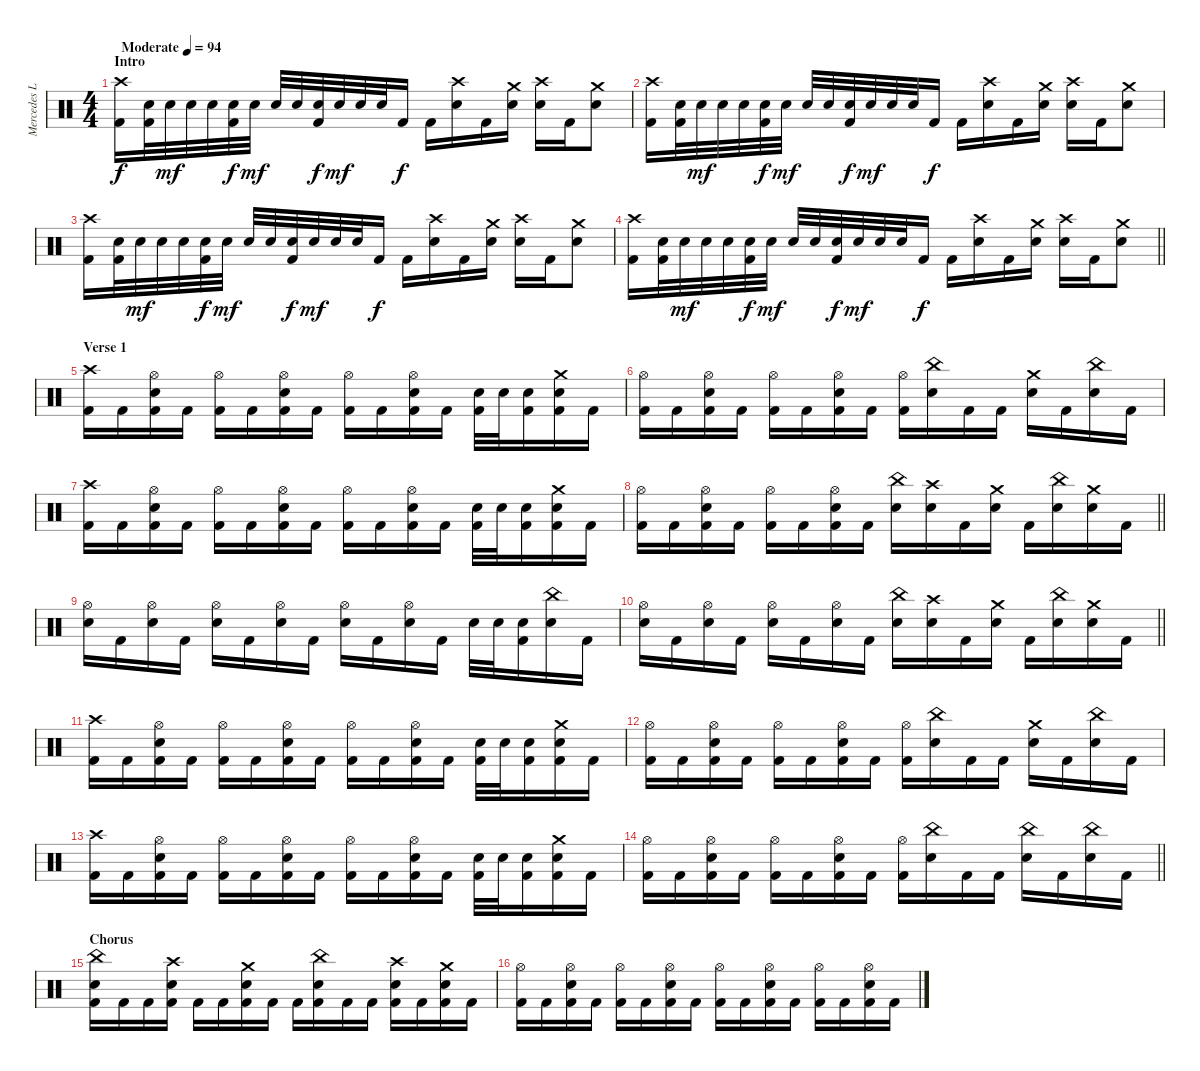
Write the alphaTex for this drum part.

\track ("Mercedes Lander" "Mercedes L") {instrument percussion}
\staff {score}
\articulation defaults
\ts (4 4)
\section ("" "Intro")
\tempo (94 "Moderate")
\clef neutral
\ks c
("Crash high (hit)" "Kick (hit) 2").16{dy f} ("Snare (hit) 2" "Kick (hit) 2").32 "Snare (hit) 2".32{dy mf} "Snare (hit) 2".32 "Snare (hit) 2".32 ("Snare (hit) 2" "Kick (hit) 2").32{dy f} "Snare (hit) 2".32{dy mf} "Snare (hit) 2".32 "Snare (hit) 2".32 ("Snare (hit) 2" "Kick (hit) 2").32{dy f} "Snare (hit) 2".32{dy mf} "Snare (hit) 2".32 "Snare (hit) 2".32 "Kick (hit) 2".16{dy f} "Kick (hit) 2".16 ("Crash high (hit)" "Snare (hit) 2").16 "Kick (hit) 2".16 ("Crash medium (hit)" "Snare (hit) 2").16 ("Crash high (hit)" "Snare (hit) 2").16 "Kick (hit) 2".16 ("Crash medium (hit)" "Snare (hit) 2").8 |
("Crash high (hit)" "Kick (hit) 2").16 ("Snare (hit) 2" "Kick (hit) 2").32 "Snare (hit) 2".32{dy mf} "Snare (hit) 2".32 "Snare (hit) 2".32 ("Snare (hit) 2" "Kick (hit) 2").32{dy f} "Snare (hit) 2".32{dy mf} "Snare (hit) 2".32 "Snare (hit) 2".32 ("Snare (hit) 2" "Kick (hit) 2").32{dy f} "Snare (hit) 2".32{dy mf} "Snare (hit) 2".32 "Snare (hit) 2".32 "Kick (hit) 2".16{dy f} "Kick (hit) 2".16 ("Crash high (hit)" "Snare (hit) 2").16 "Kick (hit) 2".16 ("Crash medium (hit)" "Snare (hit) 2").16 ("Crash high (hit)" "Snare (hit) 2").16 "Kick (hit) 2".16 ("Crash medium (hit)" "Snare (hit) 2").8 |
("Crash high (hit)" "Kick (hit) 2").16 ("Snare (hit) 2" "Kick (hit) 2").32 "Snare (hit) 2".32{dy mf} "Snare (hit) 2".32 "Snare (hit) 2".32 ("Snare (hit) 2" "Kick (hit) 2").32{dy f} "Snare (hit) 2".32{dy mf} "Snare (hit) 2".32 "Snare (hit) 2".32 ("Snare (hit) 2" "Kick (hit) 2").32{dy f} "Snare (hit) 2".32{dy mf} "Snare (hit) 2".32 "Snare (hit) 2".32 "Kick (hit) 2".16{dy f} "Kick (hit) 2".16 ("Crash high (hit)" "Snare (hit) 2").16 "Kick (hit) 2".16 ("Crash medium (hit)" "Snare (hit) 2").16 ("Crash high (hit)" "Snare (hit) 2").16 "Kick (hit) 2".16 ("Crash medium (hit)" "Snare (hit) 2").8 |
\barLineRight lightlight
("Crash high (hit)" "Kick (hit) 2").16 ("Snare (hit) 2" "Kick (hit) 2").32 "Snare (hit) 2".32{dy mf} "Snare (hit) 2".32 "Snare (hit) 2".32 ("Snare (hit) 2" "Kick (hit) 2").32{dy f} "Snare (hit) 2".32{dy mf} "Snare (hit) 2".32 "Snare (hit) 2".32 ("Snare (hit) 2" "Kick (hit) 2").32{dy f} "Snare (hit) 2".32{dy mf} "Snare (hit) 2".32 "Snare (hit) 2".32 "Kick (hit) 2".16{dy f} "Kick (hit) 2".16 ("Crash high (hit)" "Snare (hit) 2").16 "Kick (hit) 2".16 ("Crash medium (hit)" "Snare (hit) 2").16 ("Crash high (hit)" "Snare (hit) 2").16 "Kick (hit) 2".16 ("Crash medium (hit)" "Snare (hit) 2").8 |
\section ("" "Verse 1")
("Crash high (hit)" "Kick (hit) 2").16 "Kick (hit) 2".16 ("Hi-Hat (open)" "Snare (hit) 2" "Kick (hit) 2").16 "Kick (hit) 2".16 ("Hi-Hat (open)" "Kick (hit) 2").16 "Kick (hit) 2".16 ("Hi-Hat (open)" "Snare (hit) 2" "Kick (hit) 2").16 "Kick (hit) 2".16 ("Hi-Hat (open)" "Kick (hit) 2").16 "Kick (hit) 2".16 ("Hi-Hat (open)" "Snare (hit) 2" "Kick (hit) 2").16 "Kick (hit) 2".16 ("Snare (hit) 2" "Kick (hit) 2").32 "Snare (hit) 2".32 ("Snare (hit) 2" "Kick (hit) 2").16 ("Crash medium (hit)" "Snare (hit) 2" "Kick (hit) 2").16 "Kick (hit) 2".16 |
("Hi-Hat (open)" "Kick (hit) 2").16 "Kick (hit) 2".16 ("Hi-Hat (open)" "Snare (hit) 2" "Kick (hit) 2").16 "Kick (hit) 2".16 ("Hi-Hat (open)" "Kick (hit) 2").16 "Kick (hit) 2".16 ("Hi-Hat (open)" "Snare (hit) 2" "Kick (hit) 2").16 "Kick (hit) 2".16 ("Hi-Hat (open)" "Kick (hit) 2").16 ("China (hit)" "Snare (hit) 2").16 "Kick (hit) 2".16 "Kick (hit) 2".16 ("Crash medium (hit)" "Snare (hit) 2").16 "Kick (hit) 2".16 ("China (hit)" "Snare (hit) 2").16 "Kick (hit) 2".16 |
("Crash high (hit)" "Kick (hit) 2").16 "Kick (hit) 2".16 ("Hi-Hat (open)" "Snare (hit) 2" "Kick (hit) 2").16 "Kick (hit) 2".16 ("Hi-Hat (open)" "Kick (hit) 2").16 "Kick (hit) 2".16 ("Hi-Hat (open)" "Snare (hit) 2" "Kick (hit) 2").16 "Kick (hit) 2".16 ("Hi-Hat (open)" "Kick (hit) 2").16 "Kick (hit) 2".16 ("Hi-Hat (open)" "Snare (hit) 2" "Kick (hit) 2").16 "Kick (hit) 2".16 ("Snare (hit) 2" "Kick (hit) 2").32 "Snare (hit) 2".32 ("Snare (hit) 2" "Kick (hit) 2").16 ("Crash medium (hit)" "Snare (hit) 2" "Kick (hit) 2").16 "Kick (hit) 2".16 |
\barLineRight lightlight
("Hi-Hat (open)" "Kick (hit) 2").16 "Kick (hit) 2".16 ("Hi-Hat (open)" "Snare (hit) 2" "Kick (hit) 2").16 "Kick (hit) 2".16 ("Hi-Hat (open)" "Kick (hit) 2").16 "Kick (hit) 2".16 ("Hi-Hat (open)" "Snare (hit) 2" "Kick (hit) 2").16 "Kick (hit) 2".16 ("China (hit)" "Snare (hit) 2").16 ("Crash high (hit)" "Snare (hit) 2").16 "Kick (hit) 2".16 ("Crash medium (hit)" "Snare (hit) 2").16 "Kick (hit) 2".16 ("China (hit)" "Snare (hit) 2").16 ("Crash medium (hit)" "Snare (hit) 2").16 "Kick (hit) 2".16 |
("Hi-Hat (open)" "Snare (hit) 2").16 "Kick (hit) 2".16 ("Hi-Hat (open)" "Snare (hit) 2").16 "Kick (hit) 2".16 ("Hi-Hat (open)" "Snare (hit) 2").16 "Kick (hit) 2".16 ("Hi-Hat (open)" "Snare (hit) 2").16 "Kick (hit) 2".16 ("Hi-Hat (open)" "Snare (hit) 2").16 "Kick (hit) 2".16 ("Hi-Hat (open)" "Snare (hit) 2").16 "Kick (hit) 2".16 "Snare (hit) 2".32 "Snare (hit) 2".32 ("Snare (hit) 2" "Kick (hit) 2").16 ("China (hit)" "Snare (hit) 2").16 "Kick (hit) 2".16 |
\barLineRight lightlight
("Hi-Hat (open)" "Snare (hit) 2").16 "Kick (hit) 2".16 ("Hi-Hat (open)" "Snare (hit) 2").16 "Kick (hit) 2".16 ("Hi-Hat (open)" "Snare (hit) 2").16 "Kick (hit) 2".16 ("Hi-Hat (open)" "Snare (hit) 2").16 "Kick (hit) 2".16 ("China (hit)" "Snare (hit) 2").16 ("Crash high (hit)" "Snare (hit) 2").16 "Kick (hit) 2".16 ("Crash medium (hit)" "Snare (hit) 2").16 "Kick (hit) 2".16 ("China (hit)" "Snare (hit) 2").16 ("Crash medium (hit)" "Snare (hit) 2").16 "Kick (hit) 2".16 |
("Crash high (hit)" "Kick (hit) 2").16 "Kick (hit) 2".16 ("Hi-Hat (open)" "Snare (hit) 2" "Kick (hit) 2").16 "Kick (hit) 2".16 ("Hi-Hat (open)" "Kick (hit) 2").16 "Kick (hit) 2".16 ("Hi-Hat (open)" "Snare (hit) 2" "Kick (hit) 2").16 "Kick (hit) 2".16 ("Hi-Hat (open)" "Kick (hit) 2").16 "Kick (hit) 2".16 ("Hi-Hat (open)" "Snare (hit) 2" "Kick (hit) 2").16 "Kick (hit) 2".16 ("Snare (hit) 2" "Kick (hit) 2").32 "Snare (hit) 2".32 ("Snare (hit) 2" "Kick (hit) 2").16 ("Crash medium (hit)" "Snare (hit) 2" "Kick (hit) 2").16 "Kick (hit) 2".16 |
("Hi-Hat (open)" "Kick (hit) 2").16 "Kick (hit) 2".16 ("Hi-Hat (open)" "Snare (hit) 2" "Kick (hit) 2").16 "Kick (hit) 2".16 ("Hi-Hat (open)" "Kick (hit) 2").16 "Kick (hit) 2".16 ("Hi-Hat (open)" "Snare (hit) 2" "Kick (hit) 2").16 "Kick (hit) 2".16 ("Hi-Hat (open)" "Kick (hit) 2").16 ("China (hit)" "Snare (hit) 2").16 "Kick (hit) 2".16 "Kick (hit) 2".16 ("Crash medium (hit)" "Snare (hit) 2").16 "Kick (hit) 2".16 ("China (hit)" "Snare (hit) 2").16 "Kick (hit) 2".16 |
("Crash high (hit)" "Kick (hit) 2").16 "Kick (hit) 2".16 ("Hi-Hat (open)" "Snare (hit) 2" "Kick (hit) 2").16 "Kick (hit) 2".16 ("Hi-Hat (open)" "Kick (hit) 2").16 "Kick (hit) 2".16 ("Hi-Hat (open)" "Snare (hit) 2" "Kick (hit) 2").16 "Kick (hit) 2".16 ("Hi-Hat (open)" "Kick (hit) 2").16 "Kick (hit) 2".16 ("Hi-Hat (open)" "Snare (hit) 2" "Kick (hit) 2").16 "Kick (hit) 2".16 ("Snare (hit) 2" "Kick (hit) 2").32 "Snare (hit) 2".32 ("Snare (hit) 2" "Kick (hit) 2").16 ("Crash medium (hit)" "Snare (hit) 2" "Kick (hit) 2").16 "Kick (hit) 2".16 |
\barLineRight lightlight
("Hi-Hat (open)" "Kick (hit) 2").16 "Kick (hit) 2".16 ("Hi-Hat (open)" "Snare (hit) 2" "Kick (hit) 2").16 "Kick (hit) 2".16 ("Hi-Hat (open)" "Kick (hit) 2").16 "Kick (hit) 2".16 ("Hi-Hat (open)" "Snare (hit) 2" "Kick (hit) 2").16 "Kick (hit) 2".16 ("Hi-Hat (open)" "Kick (hit) 2").16 ("China (hit)" "Snare (hit) 2").16 "Kick (hit) 2".16 "Kick (hit) 2".16 ("China (hit)" "Snare (hit) 2").16 "Kick (hit) 2".16 ("China (hit)" "Snare (hit) 2").16 "Kick (hit) 2".16 |
\section ("" "Chorus")
("China (hit)" "Snare (hit) 2" "Kick (hit) 2").16 "Kick (hit) 2".16 "Kick (hit) 2".16 ("Crash high (hit)" "Snare (hit) 2" "Kick (hit) 2").16 "Kick (hit) 2".16 "Kick (hit) 2".16 ("Crash medium (hit)" "Snare (hit) 2" "Kick (hit) 2").16 "Kick (hit) 2".16 "Kick (hit) 2".16 ("China (hit)" "Snare (hit) 2" "Kick (hit) 2").16 "Kick (hit) 2".16 "Kick (hit) 2".16 ("Crash high (hit)" "Snare (hit) 2" "Kick (hit) 2").16 "Kick (hit) 2".16 ("Crash medium (hit)" "Snare (hit) 2" "Kick (hit) 2").16 "Kick (hit) 2".16 |
("Hi-Hat (open)" "Kick (hit) 2").16 "Kick (hit) 2".16 ("Hi-Hat (open)" "Snare (hit) 2" "Kick (hit) 2").16 "Kick (hit) 2".16 ("Hi-Hat (open)" "Kick (hit) 2").16 "Kick (hit) 2".16 ("Hi-Hat (open)" "Snare (hit) 2" "Kick (hit) 2").16 "Kick (hit) 2".16 ("Hi-Hat (open)" "Kick (hit) 2").16 "Kick (hit) 2".16 ("Hi-Hat (open)" "Snare (hit) 2" "Kick (hit) 2").16 "Kick (hit) 2".16 ("Hi-Hat (open)" "Kick (hit) 2").16 "Kick (hit) 2".16 ("Hi-Hat (open)" "Snare (hit) 2" "Kick (hit) 2").16 "Kick (hit) 2".16
